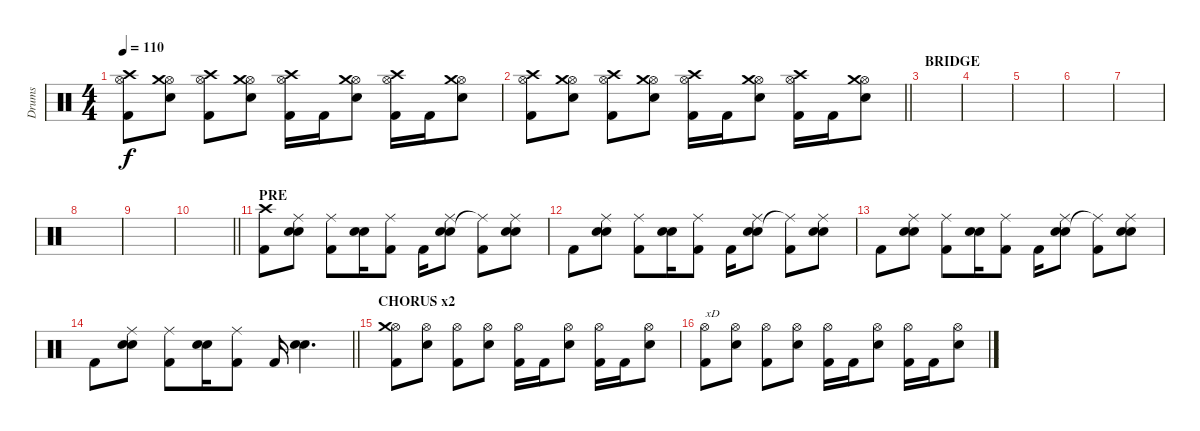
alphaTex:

\track ("Drums" "Drums") {instrument percussion}
\staff {score}
\articulation defaults
\ts (4 4)
\tempo 110
\clef neutral
\ks c
("Hi-Hat (open)" "Kick (hit) 2" "Crash high (hit)").8{dy f} ("Hi-Hat (open)" "Electric Snare (hit)" "Crash medium (hit)").8 ("Hi-Hat (open)" "Kick (hit) 2" "Crash high (hit)").8 ("Hi-Hat (open)" "Electric Snare (hit)" "Crash medium (hit)").8 ("Hi-Hat (open)" "Kick (hit) 2" "Crash high (hit)").16 "Kick (hit) 2".16 ("Hi-Hat (open)" "Electric Snare (hit)" "Crash medium (hit)").8 ("Hi-Hat (open)" "Kick (hit) 2" "Crash high (hit)").16 "Kick (hit) 2".16 ("Hi-Hat (open)" "Electric Snare (hit)" "Crash medium (hit)").8 |
\barLineRight lightlight
("Hi-Hat (open)" "Kick (hit) 2" "Crash high (hit)").8 ("Hi-Hat (open)" "Electric Snare (hit)" "Crash medium (hit)").8 ("Hi-Hat (open)" "Kick (hit) 2" "Crash high (hit)").8 ("Hi-Hat (open)" "Electric Snare (hit)" "Crash medium (hit)").8 ("Hi-Hat (open)" "Kick (hit) 2" "Crash high (hit)").16 "Kick (hit) 2".16 ("Hi-Hat (open)" "Electric Snare (hit)" "Crash medium (hit)").8 ("Hi-Hat (open)" "Kick (hit) 2" "Crash high (hit)").16 "Kick (hit) 2".16 ("Hi-Hat (open)" "Electric Snare (hit)" "Crash medium (hit)").8 |
\section ("" "BRIDGE")
|
|
|
|
|
|
|
\barLineRight lightlight
|
\section ("" "PRE")
("Kick (hit) 2" "Crash high (hit)").8{volume 15} ("Snare (hit) 2" "Snare (hit) 2" "Ride (middle)").8 ("Kick (hit) 2" "Ride (middle)").8 ("Snare (hit) 2" "Snare (hit) 2").16 ("Kick (hit) 2" "Ride (middle)").8 "Kick (hit) 2".16 ("Snare (hit) 2" "Snare (hit) 2" "Ride (middle)").8 ("Kick (hit) 2" "Ride (middle)"{t}).8 ("Snare (hit) 2" "Snare (hit) 2" "Ride (middle)").8 |
"Kick (hit) 2".8 ("Snare (hit) 2" "Snare (hit) 2" "Ride (middle)").8 ("Kick (hit) 2" "Ride (middle)").8 ("Snare (hit) 2" "Snare (hit) 2").16 ("Kick (hit) 2" "Ride (middle)").8 "Kick (hit) 2".16 ("Snare (hit) 2" "Snare (hit) 2" "Ride (middle)").8 ("Kick (hit) 2" "Ride (middle)"{t}).8 ("Snare (hit) 2" "Snare (hit) 2" "Ride (middle)").8 |
"Kick (hit) 2".8 ("Snare (hit) 2" "Snare (hit) 2" "Ride (middle)").8 ("Kick (hit) 2" "Ride (middle)").8 ("Snare (hit) 2" "Snare (hit) 2").16 ("Kick (hit) 2" "Ride (middle)").8 "Kick (hit) 2".16 ("Snare (hit) 2" "Snare (hit) 2" "Ride (middle)").8 ("Kick (hit) 2" "Ride (middle)"{t}).8 ("Snare (hit) 2" "Snare (hit) 2" "Ride (middle)").8 |
\barLineRight lightlight "Kick (hit) 2".8
("Snare (hit) 2" "Snare (hit) 2" "Ride (middle)").8 ("Kick (hit) 2" "Ride (middle)").8 ("Snare (hit) 2" "Snare (hit) 2").16 ("Kick (hit) 2" "Ride (middle)").8 "Kick (hit) 2".16 ("Snare (hit) 2" "Snare (hit) 2").4{d} |
\section ("" "CHORUS x2")
("Hi-Hat (open)" "Kick (hit) 2" "Crash medium (hit)").8{volume 16} ("Hi-Hat (open)" "Electric Snare (hit)").8 ("Hi-Hat (open)" "Kick (hit) 2").8 ("Hi-Hat (open)" "Electric Snare (hit)").8 ("Hi-Hat (open)" "Kick (hit) 2").16 "Kick (hit) 2".16 ("Hi-Hat (open)" "Electric Snare (hit)").8 ("Hi-Hat (open)" "Kick (hit) 2").16 "Kick (hit) 2".16 ("Hi-Hat (open)" "Electric Snare (hit)").8 |
("Hi-Hat (open)" "Kick (hit) 2").8{txt "xD"} ("Hi-Hat (open)" "Electric Snare (hit)").8 ("Hi-Hat (open)" "Kick (hit) 2").8 ("Hi-Hat (open)" "Electric Snare (hit)").8 ("Hi-Hat (open)" "Kick (hit) 2").16 "Kick (hit) 2".16 ("Hi-Hat (open)" "Electric Snare (hit)").8 ("Hi-Hat (open)" "Kick (hit) 2").16 "Kick (hit) 2".16 ("Hi-Hat (open)" "Electric Snare (hit)").8
